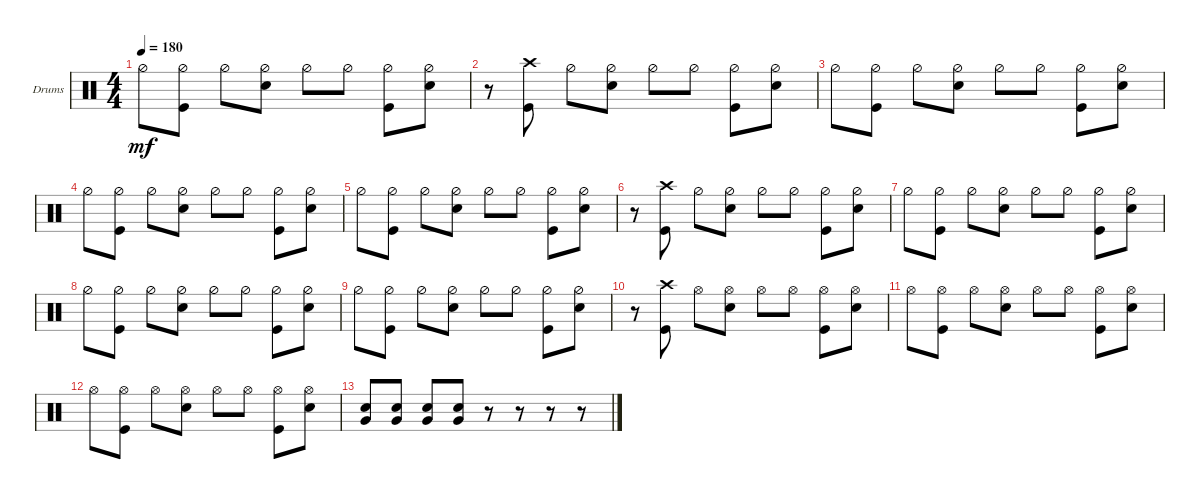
\bracketExtendMode groupsimilarinstruments
\firstSystemTrackNameOrientation horizontal
\otherSystemsTrackNameOrientation horizontal
\track ("Drumkit" "Drums") {instrument percussion}
\staff {score}
\articulation defaults
\ts (4 4)
\tempo 180
\clef neutral
\ks c "Hi-Hat (half)".8{dy mf}
("Kick (hit)" "Hi-Hat (half)").8 "Hi-Hat (half)".8 ("Snare (hit) 2" "Hi-Hat (half)").8 "Hi-Hat (half)".8 "Hi-Hat (half)".8 ("Kick (hit)" "Hi-Hat (half)").8 ("Snare (hit) 2" "Hi-Hat (half)").8 |
r.8 ("Kick (hit)" "Crash high (hit)").8 "Hi-Hat (half)".8 ("Snare (hit) 2" "Hi-Hat (half)").8 "Hi-Hat (half)".8 "Hi-Hat (half)".8 ("Kick (hit)" "Hi-Hat (half)").8 ("Snare (hit) 2" "Hi-Hat (half)").8 |
"Hi-Hat (half)".8 ("Kick (hit)" "Hi-Hat (half)").8 "Hi-Hat (half)".8 ("Snare (hit) 2" "Hi-Hat (half)").8 "Hi-Hat (half)".8 "Hi-Hat (half)".8 ("Kick (hit)" "Hi-Hat (half)").8 ("Snare (hit) 2" "Hi-Hat (half)").8 |
"Hi-Hat (half)".8 ("Kick (hit)" "Hi-Hat (half)").8 "Hi-Hat (half)".8 ("Snare (hit) 2" "Hi-Hat (half)").8 "Hi-Hat (half)".8 "Hi-Hat (half)".8 ("Kick (hit)" "Hi-Hat (half)").8 ("Snare (hit) 2" "Hi-Hat (half)").8 |
"Hi-Hat (half)".8 ("Kick (hit)" "Hi-Hat (half)").8 "Hi-Hat (half)".8 ("Snare (hit) 2" "Hi-Hat (half)").8 "Hi-Hat (half)".8 "Hi-Hat (half)".8 ("Kick (hit)" "Hi-Hat (half)").8 ("Snare (hit) 2" "Hi-Hat (half)").8 |
r.8 ("Kick (hit)" "Crash high (hit)").8 "Hi-Hat (half)".8 ("Snare (hit) 2" "Hi-Hat (half)").8 "Hi-Hat (half)".8 "Hi-Hat (half)".8 ("Kick (hit)" "Hi-Hat (half)").8 ("Snare (hit) 2" "Hi-Hat (half)").8 |
"Hi-Hat (half)".8 ("Kick (hit)" "Hi-Hat (half)").8 "Hi-Hat (half)".8 ("Snare (hit) 2" "Hi-Hat (half)").8 "Hi-Hat (half)".8 "Hi-Hat (half)".8 ("Kick (hit)" "Hi-Hat (half)").8 ("Snare (hit) 2" "Hi-Hat (half)").8 |
"Hi-Hat (half)".8 ("Kick (hit)" "Hi-Hat (half)").8 "Hi-Hat (half)".8 ("Snare (hit) 2" "Hi-Hat (half)").8 "Hi-Hat (half)".8 "Hi-Hat (half)".8 ("Kick (hit)" "Hi-Hat (half)").8 ("Snare (hit) 2" "Hi-Hat (half)").8 |
"Hi-Hat (half)".8 ("Kick (hit)" "Hi-Hat (half)").8 "Hi-Hat (half)".8 ("Snare (hit) 2" "Hi-Hat (half)").8 "Hi-Hat (half)".8 "Hi-Hat (half)".8 ("Kick (hit)" "Hi-Hat (half)").8 ("Snare (hit) 2" "Hi-Hat (half)").8 |
r.8 ("Kick (hit)" "Crash high (hit)").8 "Hi-Hat (open)".8 ("Snare (hit) 2" "Hi-Hat (open)").8 "Hi-Hat (open)".8 "Hi-Hat (open)".8 ("Kick (hit)" "Hi-Hat (open)").8 ("Snare (hit) 2" "Hi-Hat (open)").8 |
"Hi-Hat (open)".8 ("Kick (hit)" "Hi-Hat (open)").8 "Hi-Hat (open)".8 ("Snare (hit) 2" "Hi-Hat (open)").8 "Hi-Hat (open)".8 "Hi-Hat (open)".8 ("Kick (hit)" "Hi-Hat (open)").8 ("Snare (hit) 2" "Hi-Hat (open)").8 |
"Hi-Hat (open)".8 ("Kick (hit)" "Hi-Hat (open)").8 "Hi-Hat (open)".8 ("Snare (hit) 2" "Hi-Hat (open)").8 "Hi-Hat (open)".8 "Hi-Hat (open)".8 ("Kick (hit)" "Hi-Hat (open)").8 ("Snare (hit) 2" "Hi-Hat (open)").8 |
("Snare (hit) 2" "Very Low Tom (hit)").8 ("Snare (hit) 2" "Very Low Tom (hit)").8 ("Snare (hit) 2" "Very Low Tom (hit)").8 ("Snare (hit) 2" "Very Low Tom (hit)").8 r.8 r.8 r.8 r.8
